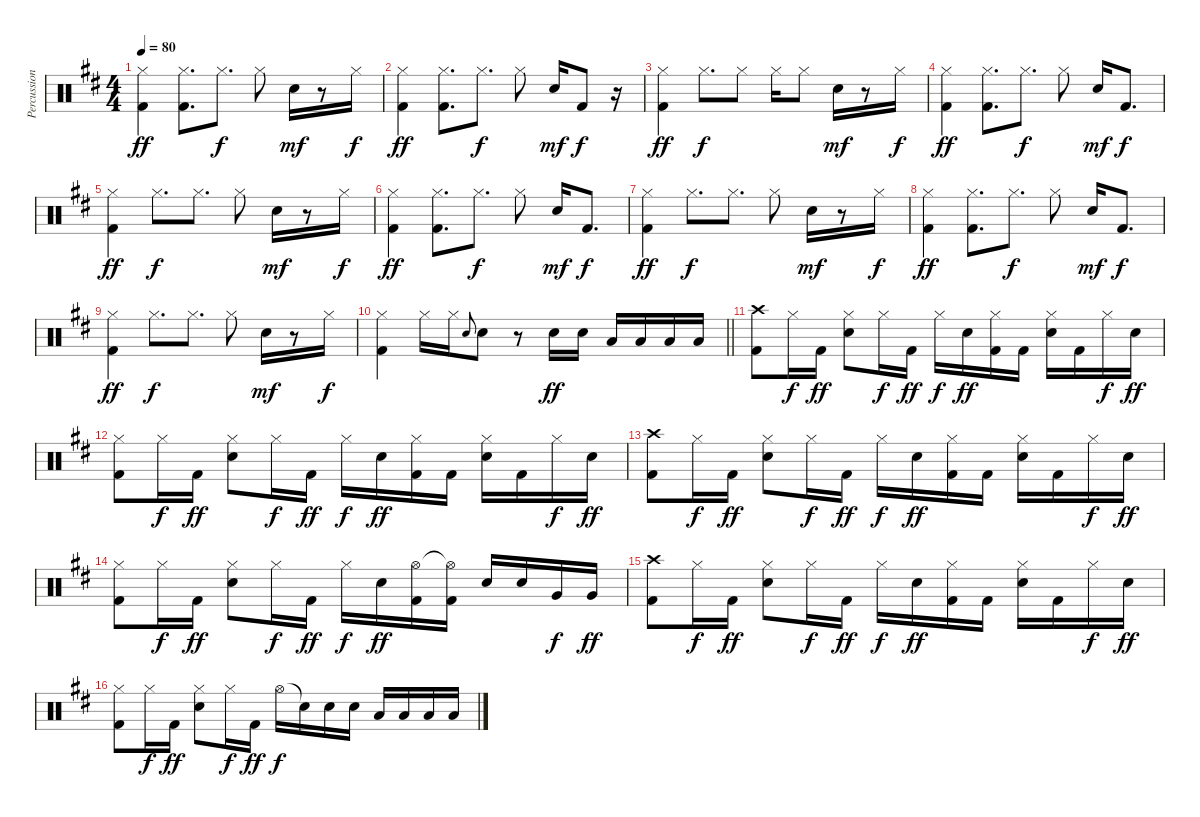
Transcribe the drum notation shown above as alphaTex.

\track ("Percussion" "Percussion") {instrument percussion}
\staff {score}
\articulation defaults
\ts (4 4)
\tempo 80
\clef neutral
\ks bminor
("Hi-Hat (closed)" "Kick (hit) 2").4{dy ff} ("Hi-Hat (closed)" "Kick (hit) 2").8{d} "Hi-Hat (closed)".8{d dy f} "Hi-Hat (closed)".8 "Electric Snare (hit)".16{dy mf} r.8 "Hi-Hat (closed)".16{dy f} |
("Hi-Hat (closed)" "Kick (hit) 2").4{dy ff} ("Hi-Hat (closed)" "Kick (hit) 2").8{d} "Hi-Hat (closed)".8{d dy f} "Hi-Hat (closed)".8 "Electric Snare (hit)".16{dy mf} "Kick (hit) 2".8{dy f} r.16 |
("Hi-Hat (closed)" "Kick (hit) 2").4{dy ff} "Hi-Hat (closed)".8{d dy f} "Hi-Hat (closed)".8 "Hi-Hat (closed)".16 "Hi-Hat (closed)".8 "Electric Snare (hit)".16{dy mf} r.8 "Hi-Hat (closed)".16{dy f} |
("Hi-Hat (closed)" "Kick (hit) 2").4{dy ff} ("Hi-Hat (closed)" "Kick (hit) 2").8{d} "Hi-Hat (closed)".8{d dy f} "Hi-Hat (closed)".8 "Electric Snare (hit)".16{dy mf} "Kick (hit) 2".8{d dy f} |
("Hi-Hat (closed)" "Kick (hit) 2").4{dy ff} "Hi-Hat (closed)".8{d dy f} "Hi-Hat (closed)".8{d} "Hi-Hat (closed)".8 "Electric Snare (hit)".16{dy mf} r.8 "Hi-Hat (closed)".16{dy f} |
("Hi-Hat (closed)" "Kick (hit) 2").4{dy ff} ("Hi-Hat (closed)" "Kick (hit) 2").8{d} "Hi-Hat (closed)".8{d dy f} "Hi-Hat (closed)".8 "Electric Snare (hit)".16{dy mf} "Kick (hit) 2".8{d dy f} |
("Hi-Hat (closed)" "Kick (hit) 2").4{dy ff} "Hi-Hat (closed)".8{d dy f} "Hi-Hat (closed)".8{d} "Hi-Hat (closed)".8 "Electric Snare (hit)".16{dy mf} r.8 "Hi-Hat (closed)".16{dy f} |
("Hi-Hat (closed)" "Kick (hit) 2").4{dy ff} ("Hi-Hat (closed)" "Kick (hit) 2").8{d} "Hi-Hat (closed)".8{d dy f} "Hi-Hat (closed)".8 "Electric Snare (hit)".16{dy mf} "Kick (hit) 2".8{d dy f} |
("Hi-Hat (closed)" "Kick (hit) 2").4{dy ff} "Hi-Hat (closed)".8{d dy f} "Hi-Hat (closed)".8{d} "Hi-Hat (closed)".8 "Electric Snare (hit)".16{dy mf} r.8 "Hi-Hat (closed)".16{dy f} |
\barLineRight lightlight
("Hi-Hat (closed)" "Kick (hit) 2").4 "Hi-Hat (closed)".16 "Hi-Hat (closed)".16 "Electric Snare (hit)".8{gr onbeat} "Electric Snare (hit)".8 r.8 "Snare (hit) 2".16{dy ff} "Snare (hit) 2".16 "Low Tom (hit)".16 "Low Tom (hit)".16 "Low Floor Tom (hit)".16 "Low Floor Tom (hit)".16 |
("Crash high (hit)" "Kick (hit) 2").8{volume 16} "Hi-Hat (closed)".16{dy f} "Kick (hit) 2".16{dy ff} ("Hi-Hat (closed)" "Snare (hit) 2").8 "Hi-Hat (closed)".16{dy f} "Kick (hit) 2".16{dy ff} "Hi-Hat (closed)".16{dy f} "Snare (hit) 2".16{dy ff} ("Hi-Hat (closed)" "Kick (hit) 2").16 "Kick (hit) 2".16 ("Hi-Hat (closed)" "Snare (hit) 2").16 "Kick (hit) 2".16 "Hi-Hat (closed)".16{dy f} "Snare (hit) 2".16{dy ff} |
("Hi-Hat (closed)" "Kick (hit) 2").8 "Hi-Hat (closed)".16{dy f} "Kick (hit) 2".16{dy ff} ("Hi-Hat (closed)" "Snare (hit) 2").8 "Hi-Hat (closed)".16{dy f} "Kick (hit) 2".16{dy ff} "Hi-Hat (closed)".16{dy f} "Snare (hit) 2".16{dy ff} ("Hi-Hat (closed)" "Kick (hit) 2").16 "Kick (hit) 2".16 ("Hi-Hat (closed)" "Snare (hit) 2").16 "Kick (hit) 2".16 "Hi-Hat (closed)".16{dy f} "Snare (hit) 2".16{dy ff} |
("Crash high (hit)" "Kick (hit) 2").8 "Hi-Hat (closed)".16{dy f} "Kick (hit) 2".16{dy ff} ("Hi-Hat (closed)" "Snare (hit) 2").8 "Hi-Hat (closed)".16{dy f} "Kick (hit) 2".16{dy ff} "Hi-Hat (closed)".16{dy f} "Snare (hit) 2".16{dy ff} ("Hi-Hat (closed)" "Kick (hit) 2").16 "Kick (hit) 2".16 ("Hi-Hat (closed)" "Snare (hit) 2").16 "Kick (hit) 2".16 "Hi-Hat (closed)".16{dy f} "Snare (hit) 2".16{dy ff} |
("Hi-Hat (closed)" "Kick (hit) 2").8 "Hi-Hat (closed)".16{dy f} "Kick (hit) 2".16{dy ff} ("Hi-Hat (closed)" "Snare (hit) 2").8 "Hi-Hat (closed)".16{dy f} "Kick (hit) 2".16{dy ff} "Hi-Hat (closed)".16{dy f} "Snare (hit) 2".16{dy ff} ("Hi-Hat (open)" "Kick (hit) 2").16 ("Hi-Hat (open)"{t} "Kick (hit) 2").16 "Snare (hit) 2".16 "Snare (hit) 2".16 "Very Low Tom (hit)".16{dy f} "Very Low Tom (hit)".16{dy ff} |
("Crash high (hit)" "Kick (hit) 2").8 "Hi-Hat (closed)".16{dy f} "Kick (hit) 2".16{dy ff} ("Hi-Hat (closed)" "Snare (hit) 2").8 "Hi-Hat (closed)".16{dy f} "Kick (hit) 2".16{dy ff} "Hi-Hat (closed)".16{dy f} "Snare (hit) 2".16{dy ff} ("Hi-Hat (closed)" "Kick (hit) 2").16 "Kick (hit) 2".16 ("Hi-Hat (closed)" "Snare (hit) 2").16 "Kick (hit) 2".16 "Hi-Hat (closed)".16{dy f} "Snare (hit) 2".16{dy ff} |
("Hi-Hat (closed)" "Kick (hit) 2").8 "Hi-Hat (closed)".16{dy f} "Kick (hit) 2".16{dy ff} ("Hi-Hat (closed)" "Snare (hit) 2").8 "Hi-Hat (closed)".16{dy f} "Kick (hit) 2".16{dy ff} "Hi-Hat (open)".16{dy f} "Snare (hit)"{t}.16 "Snare (hit) 2".16 "Snare (hit) 2".16 "Low Tom (hit)".16 "Low Tom (hit)".16 "Low Floor Tom (hit)".16 "Low Floor Tom (hit)".16
